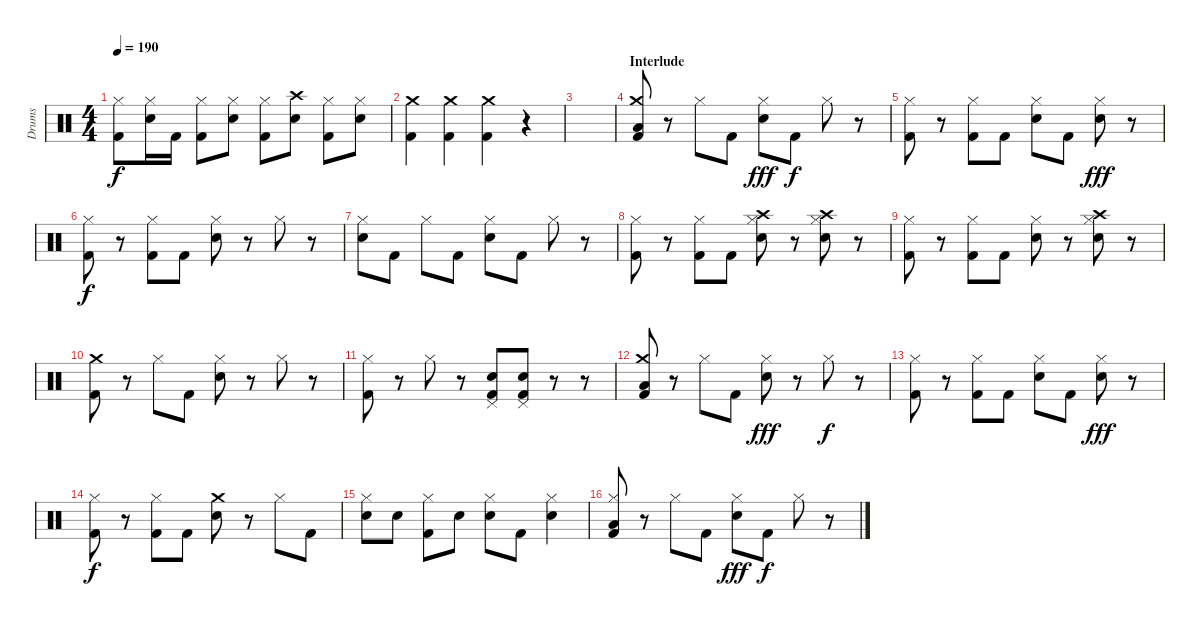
\track ("Drums" "Drums") {instrument percussion}
\staff {score}
\articulation defaults
\ts (4 4)
\tempo 190
\clef neutral
\ks c
("Kick (hit) 2" "Hi-Hat (closed)").8{dy f} ("Snare (hit) 2" "Hi-Hat (closed)").16 "Kick (hit) 2".16 ("Kick (hit) 2" "Hi-Hat (closed)").8 ("Snare (hit) 2" "Hi-Hat (closed)").8 ("Kick (hit) 2" "Hi-Hat (closed)").8 ("Snare (hit) 2" "Crash high (hit)").8 ("Kick (hit) 2" "Hi-Hat (closed)").8 ("Snare (hit) 2" "Hi-Hat (closed)").8 |
("Crash medium (hit)" "Kick (hit) 2").4 ("Crash medium (hit)" "Kick (hit) 2").4 ("Crash medium (hit)" "Kick (hit) 2").4 r.4 |
|
\section ("" "Interlude")
("Kick (hit) 2" "Low Tom (hit)" "Crash medium (hit)").8 r.8 "Hi-Hat (closed)".8 "Kick (hit) 2".8 ("Snare (hit) 2" "Hi-Hat (closed)").8{dy fff} "Kick (hit) 2".8{dy f} "Hi-Hat (closed)".8 r.8 |
("Kick (hit) 2" "Hi-Hat (closed)").8 r.8 ("Kick (hit) 2" "Hi-Hat (closed)").8 "Kick (hit) 2".8 ("Snare (hit) 2" "Hi-Hat (closed)").8 "Kick (hit) 2".8 ("Snare (hit) 2" "Hi-Hat (closed)").8{dy fff} r.8 |
("Kick (hit) 2" "Hi-Hat (closed)").8{dy f} r.8 ("Kick (hit) 2" "Hi-Hat (closed)").8 "Kick (hit) 2".8 ("Snare (hit) 2" "Hi-Hat (closed)").8 r.8 "Hi-Hat (closed)".8 r.8 |
("Snare (hit) 2" "Hi-Hat (closed)").8 "Kick (hit) 2".8 "Hi-Hat (closed)".8 "Kick (hit) 2".8 ("Snare (hit) 2" "Hi-Hat (closed)").8 "Kick (hit) 2".8 "Hi-Hat (closed)".8 r.8 |
("Kick (hit) 2" "Hi-Hat (closed)").8 r.8 ("Kick (hit) 2" "Hi-Hat (closed)").8 "Kick (hit) 2".8 ("Crash high (hit)" "Snare (hit) 2" "Hi-Hat (closed)").8 r.8 ("Crash high (hit)" "Snare (hit) 2" "Hi-Hat (closed)").8 r.8 |
("Kick (hit) 2" "Hi-Hat (closed)").8 r.8 ("Kick (hit) 2" "Hi-Hat (closed)").8 "Kick (hit) 2".8 ("Snare (hit) 2" "Hi-Hat (closed)").8 r.8 ("Crash high (hit)" "Snare (hit) 2" "Hi-Hat (closed)").8 r.8 |
("Kick (hit) 2" "Crash medium (hit)").8 r.8 "Hi-Hat (closed)".8 "Kick (hit) 2".8 ("Snare (hit) 2" "Hi-Hat (closed)").8 r.8 "Hi-Hat (closed)".8 r.8 |
("Kick (hit) 2" "Hi-Hat (closed)").8 r.8 "Hi-Hat (closed)".8 r.8 ("Kick (hit) 2" "Snare (hit) 2" "Pedal Hi-Hat (hit)").8 ("Kick (hit) 2" "Snare (hit) 2" "Pedal Hi-Hat (hit)").8 r.8 r.8 |
("Kick (hit) 2" "Low Tom (hit)" "Crash medium (hit)").8 r.8 "Hi-Hat (closed)".8 "Kick (hit) 2".8 ("Snare (hit) 2" "Hi-Hat (closed)").8{dy fff} r.8 "Hi-Hat (closed)".8{dy f} r.8 |
("Kick (hit) 2" "Hi-Hat (closed)").8 r.8 ("Kick (hit) 2" "Hi-Hat (closed)").8 "Kick (hit) 2".8 ("Snare (hit) 2" "Hi-Hat (closed)").8 "Kick (hit) 2".8 ("Snare (hit) 2" "Hi-Hat (closed)").8{dy fff} r.8 |
("Kick (hit) 2" "Hi-Hat (closed)").8{dy f} r.8 ("Kick (hit) 2" "Hi-Hat (closed)").8 "Kick (hit) 2".8 ("Snare (hit) 2" "Crash medium (hit)").8 r.8 "Hi-Hat (closed)".8 "Kick (hit) 2".8 |
("Snare (hit) 2" "Hi-Hat (closed)").8 "Snare (hit) 2".8 ("Kick (hit) 2" "Hi-Hat (closed)").8 "Snare (hit) 2".8 ("Snare (hit) 2" "Hi-Hat (closed)").8 "Kick (hit) 2".8 ("Snare (hit) 2" "Hi-Hat (closed)").4 |
("Kick (hit) 2" "Low Tom (hit)" "Hi-Hat (closed)").8 r.8 "Hi-Hat (closed)".8 "Kick (hit) 2".8 ("Snare (hit) 2" "Hi-Hat (closed)").8{dy fff} "Kick (hit) 2".8{dy f} "Hi-Hat (closed)".8 r.8
